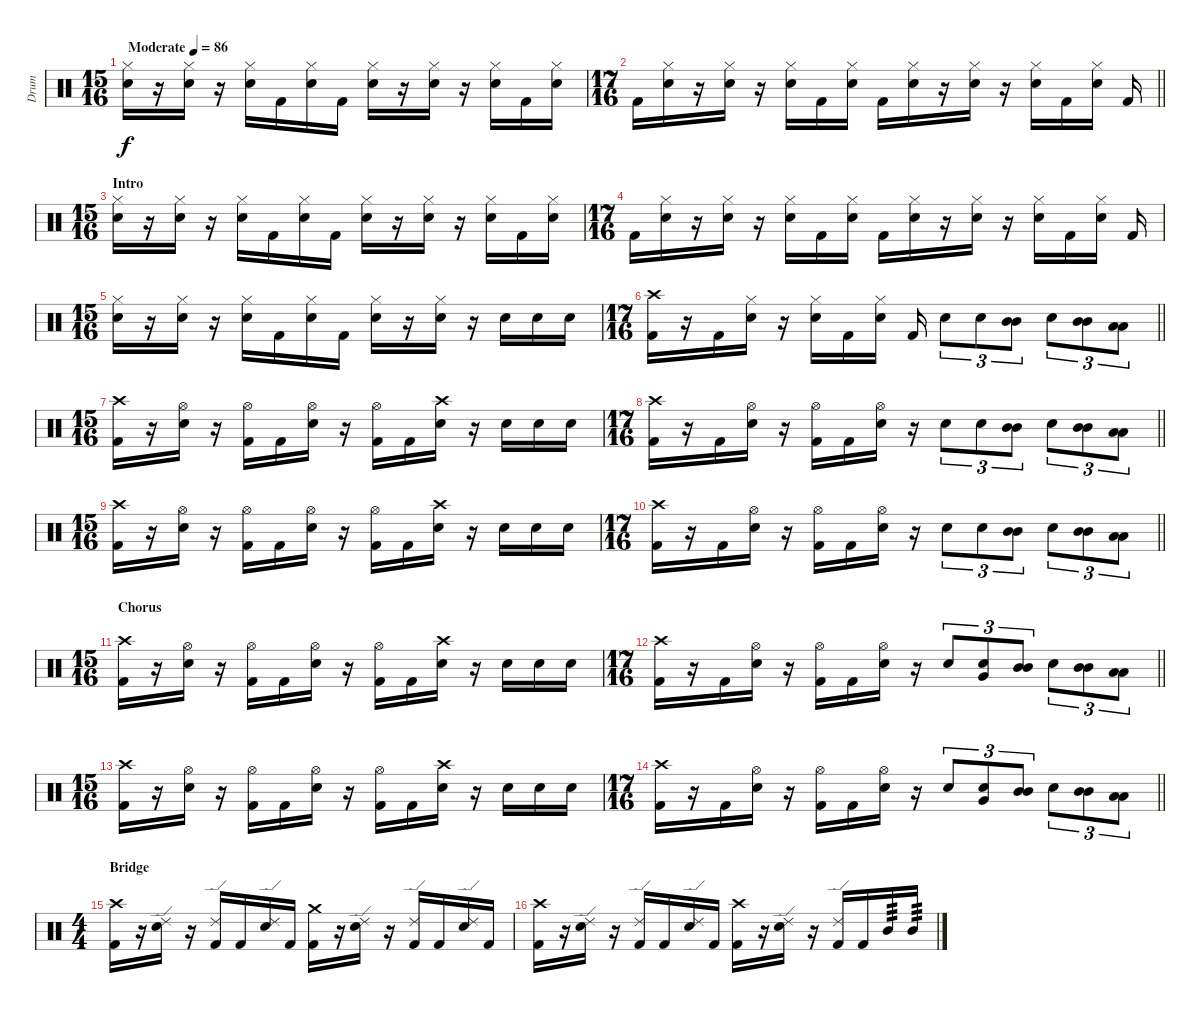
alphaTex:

\track ("Drum" "Drum") {instrument percussion}
\staff {score}
\articulation defaults
\ts (15 16)
\tempo (86 "Moderate")
\clef neutral
\ks c
("Hi-Hat (closed)" "Electric Snare (hit)").16{dy f} r.16 ("Hi-Hat (closed)" "Electric Snare (hit)").16 r.16 ("Hi-Hat (closed)" "Electric Snare (hit)").16 "Kick (hit) 2".16 ("Hi-Hat (closed)" "Electric Snare (hit)").16 "Kick (hit) 2".16 ("Hi-Hat (closed)" "Electric Snare (hit)").16 r.16 ("Hi-Hat (closed)" "Electric Snare (hit)").16 r.16 ("Hi-Hat (closed)" "Electric Snare (hit)").16 "Kick (hit) 2".16 ("Hi-Hat (closed)" "Electric Snare (hit)").16 |
\ts (17 16)
\barLineRight lightlight "Kick (hit) 2".16
("Hi-Hat (closed)" "Electric Snare (hit)").16 r.16 ("Hi-Hat (closed)" "Electric Snare (hit)").16 r.16 ("Hi-Hat (closed)" "Electric Snare (hit)").16 "Kick (hit) 2".16 ("Hi-Hat (closed)" "Electric Snare (hit)").16 "Kick (hit) 2".16 ("Hi-Hat (closed)" "Electric Snare (hit)").16 r.16 ("Hi-Hat (closed)" "Electric Snare (hit)").16 r.16 ("Hi-Hat (closed)" "Electric Snare (hit)").16 "Kick (hit) 2".16 ("Hi-Hat (closed)" "Electric Snare (hit)").16 "Kick (hit) 2".16 |
\ts (15 16)
\section ("" "Intro")
("Hi-Hat (closed)" "Electric Snare (hit)").16 r.16 ("Hi-Hat (closed)" "Electric Snare (hit)").16 r.16 ("Hi-Hat (closed)" "Electric Snare (hit)").16 "Kick (hit) 2".16 ("Hi-Hat (closed)" "Electric Snare (hit)").16 "Kick (hit) 2".16 ("Hi-Hat (closed)" "Electric Snare (hit)").16 r.16 ("Hi-Hat (closed)" "Electric Snare (hit)").16 r.16 ("Hi-Hat (closed)" "Electric Snare (hit)").16 "Kick (hit) 2".16 ("Hi-Hat (closed)" "Electric Snare (hit)").16 |
\ts (17 16)
"Kick (hit) 2".16 ("Hi-Hat (closed)" "Electric Snare (hit)").16 r.16 ("Hi-Hat (closed)" "Electric Snare (hit)").16 r.16 ("Hi-Hat (closed)" "Electric Snare (hit)").16 "Kick (hit) 2".16 ("Hi-Hat (closed)" "Electric Snare (hit)").16 "Kick (hit) 2".16 ("Hi-Hat (closed)" "Electric Snare (hit)").16 r.16 ("Hi-Hat (closed)" "Electric Snare (hit)").16 r.16 ("Hi-Hat (closed)" "Electric Snare (hit)").16 "Kick (hit) 2".16 ("Hi-Hat (closed)" "Electric Snare (hit)").16 "Kick (hit) 2".16 |
\ts (15 16)
("Hi-Hat (closed)" "Electric Snare (hit)").16 r.16 ("Hi-Hat (closed)" "Electric Snare (hit)").16 r.16 ("Hi-Hat (closed)" "Electric Snare (hit)").16 "Kick (hit) 2".16 ("Hi-Hat (closed)" "Electric Snare (hit)").16 "Kick (hit) 2".16 ("Hi-Hat (closed)" "Electric Snare (hit)").16 r.16 ("Hi-Hat (closed)" "Electric Snare (hit)").16 r.16 "Electric Snare (hit)".16 "Electric Snare (hit)".16 "Electric Snare (hit)".16 |
\ts (17 16)
\barLineRight lightlight
("Crash high (hit)" "Kick (hit) 2").16 r.16 "Kick (hit) 2".16 ("Hi-Hat (closed)" "Electric Snare (hit)").16 r.16 ("Hi-Hat (closed)" "Electric Snare (hit)").16 "Kick (hit) 2".16 ("Hi-Hat (closed)" "Electric Snare (hit)").16 "Kick (hit) 2".16 "Electric Snare (hit)".8{tu (3 2)} "Electric Snare (hit)".8{tu (3 2)} ("Mid Tom (hit)" "Mid Tom (hit)").8{tu (3 2)} "Electric Snare (hit)".8{tu (3 2)} ("Mid Tom (hit)" "Mid Tom (hit)").8{tu (3 2)} ("Low Tom (hit)" "Low Tom (hit)").8{tu (3 2)} |
\ts (15 16)
\section ("" "")
("Crash high (hit)" "Kick (hit) 2").16 r.16 ("Hi-Hat (open)" "Electric Snare (hit)").16 r.16 ("Hi-Hat (open)" "Kick (hit) 2").16 "Kick (hit) 2".16 ("Hi-Hat (open)" "Electric Snare (hit)").16 r.16 ("Hi-Hat (open)" "Kick (hit) 2").16 "Kick (hit) 2".16 ("Crash high (hit)" "Electric Snare (hit)").16 r.16 "Electric Snare (hit)".16 "Electric Snare (hit)".16 "Electric Snare (hit)".16 |
\ts (17 16)
\barLineRight lightlight
("Crash high (hit)" "Kick (hit) 2").16 r.16 "Kick (hit) 2".16 ("Hi-Hat (open)" "Electric Snare (hit)").16 r.16 ("Hi-Hat (open)" "Kick (hit) 2").16 "Kick (hit) 2".16 ("Hi-Hat (open)" "Electric Snare (hit)").16 r.16 "Electric Snare (hit)".8{tu (3 2)} "Electric Snare (hit)".8{tu (3 2)} ("Mid Tom (hit)" "Mid Tom (hit)").8{tu (3 2)} "Electric Snare (hit)".8{tu (3 2)} ("Mid Tom (hit)" "Mid Tom (hit)").8{tu (3 2)} ("Low Tom (hit)" "Low Tom (hit)").8{tu (3 2)} |
\ts (15 16)
("Crash high (hit)" "Kick (hit) 2").16 r.16 ("Hi-Hat (open)" "Electric Snare (hit)").16 r.16 ("Hi-Hat (open)" "Kick (hit) 2").16 "Kick (hit) 2".16 ("Hi-Hat (open)" "Electric Snare (hit)").16 r.16 ("Hi-Hat (open)" "Kick (hit) 2").16 "Kick (hit) 2".16 ("Crash high (hit)" "Electric Snare (hit)").16 r.16 "Electric Snare (hit)".16 "Electric Snare (hit)".16 "Electric Snare (hit)".16 |
\ts (17 16)
\barLineRight lightlight
("Crash high (hit)" "Kick (hit) 2").16 r.16 "Kick (hit) 2".16 ("Hi-Hat (open)" "Electric Snare (hit)").16 r.16 ("Hi-Hat (open)" "Kick (hit) 2").16 "Kick (hit) 2".16 ("Hi-Hat (open)" "Electric Snare (hit)").16 r.16 "Electric Snare (hit)".8{tu (3 2)} "Electric Snare (hit)".8{tu (3 2)} ("Mid Tom (hit)" "Mid Tom (hit)").8{tu (3 2)} "Electric Snare (hit)".8{tu (3 2)} ("Mid Tom (hit)" "Mid Tom (hit)").8{tu (3 2)} ("Low Tom (hit)" "Low Tom (hit)").8{tu (3 2)} |
\ts (15 16)
\section ("" "Chorus")
("Crash high (hit)" "Kick (hit) 2").16 r.16 ("Hi-Hat (open)" "Electric Snare (hit)").16 r.16 ("Hi-Hat (open)" "Kick (hit) 2").16 "Kick (hit) 2".16 ("Hi-Hat (open)" "Electric Snare (hit)").16 r.16 ("Hi-Hat (open)" "Kick (hit) 2").16 "Kick (hit) 2".16 ("Crash high (hit)" "Electric Snare (hit)").16 r.16 "Electric Snare (hit)".16 "Electric Snare (hit)".16 "Electric Snare (hit)".16 |
\ts (17 16)
\barLineRight lightlight
("Crash high (hit)" "Kick (hit) 2").16 r.16 "Kick (hit) 2".16 ("Hi-Hat (open)" "Electric Snare (hit)").16 r.16 ("Hi-Hat (open)" "Kick (hit) 2").16 "Kick (hit) 2".16 ("Hi-Hat (open)" "Electric Snare (hit)").16 r.16 "Electric Snare (hit)".8{tu (3 2)} ("Very Low Tom (hit)" "Electric Snare (hit)").8{tu (3 2)} ("Mid Tom (hit)" "Mid Tom (hit)").8{tu (3 2)} "Electric Snare (hit)".8{tu (3 2)} ("Mid Tom (hit)" "Mid Tom (hit)").8{tu (3 2)} ("Low Tom (hit)" "Low Tom (hit)").8{tu (3 2)} |
\ts (15 16)
("Crash high (hit)" "Kick (hit) 2").16 r.16 ("Hi-Hat (open)" "Electric Snare (hit)").16 r.16 ("Hi-Hat (open)" "Kick (hit) 2").16 "Kick (hit) 2".16 ("Hi-Hat (open)" "Electric Snare (hit)").16 r.16 ("Hi-Hat (open)" "Kick (hit) 2").16 "Kick (hit) 2".16 ("Crash high (hit)" "Electric Snare (hit)").16 r.16 "Electric Snare (hit)".16 "Electric Snare (hit)".16 "Electric Snare (hit)".16 |
\ts (17 16)
\barLineRight lightlight
("Crash high (hit)" "Kick (hit) 2").16 r.16 "Kick (hit) 2".16 ("Hi-Hat (open)" "Electric Snare (hit)").16 r.16 ("Hi-Hat (open)" "Kick (hit) 2").16 "Kick (hit) 2".16 ("Hi-Hat (open)" "Electric Snare (hit)").16 r.16 "Electric Snare (hit)".8{tu (3 2)} ("Very Low Tom (hit)" "Electric Snare (hit)").8{tu (3 2)} ("Mid Tom (hit)" "Mid Tom (hit)").8{tu (3 2)} "Electric Snare (hit)".8{tu (3 2)} ("Mid Tom (hit)" "Mid Tom (hit)").8{tu (3 2)} ("Low Tom (hit)" "Low Tom (hit)").8{tu (3 2)} |
\ts (4 4)
\section ("" "Bridge")
("Crash high (hit)" "Kick (hit) 2").16 r.16 ("Ride (edge) 2" "Electric Snare (hit)").16 r.16 ("Ride (edge) 2" "Kick (hit) 2").16 "Kick (hit) 2".16 ("Ride (edge) 2" "Electric Snare (hit)").16 "Kick (hit) 2".16 ("Crash medium (hit)" "Kick (hit) 2").16 r.16 ("Ride (edge) 2" "Electric Snare (hit)").16 r.16 ("Ride (edge) 2" "Kick (hit) 2").16 "Kick (hit) 2".16 ("Ride (edge) 2" "Electric Snare (hit)").16 "Kick (hit) 2".16 |
("Crash high (hit)" "Kick (hit) 2").16 r.16 ("Ride (edge) 2" "Electric Snare (hit)").16 r.16 ("Ride (edge) 2" "Kick (hit) 2").16 "Kick (hit) 2".16 ("Ride (edge) 2" "Electric Snare (hit)").16 "Kick (hit) 2".16 ("Crash high (hit)" "Kick (hit) 2").16 r.16 ("Ride (edge) 2" "Electric Snare (hit)").16 r.16 ("Ride (edge) 2" "Kick (hit) 2").16 "Kick (hit) 2".16 "Mid Tom (hit)".16{tp 3} "Mid Tom (hit)".16{tp 3}
